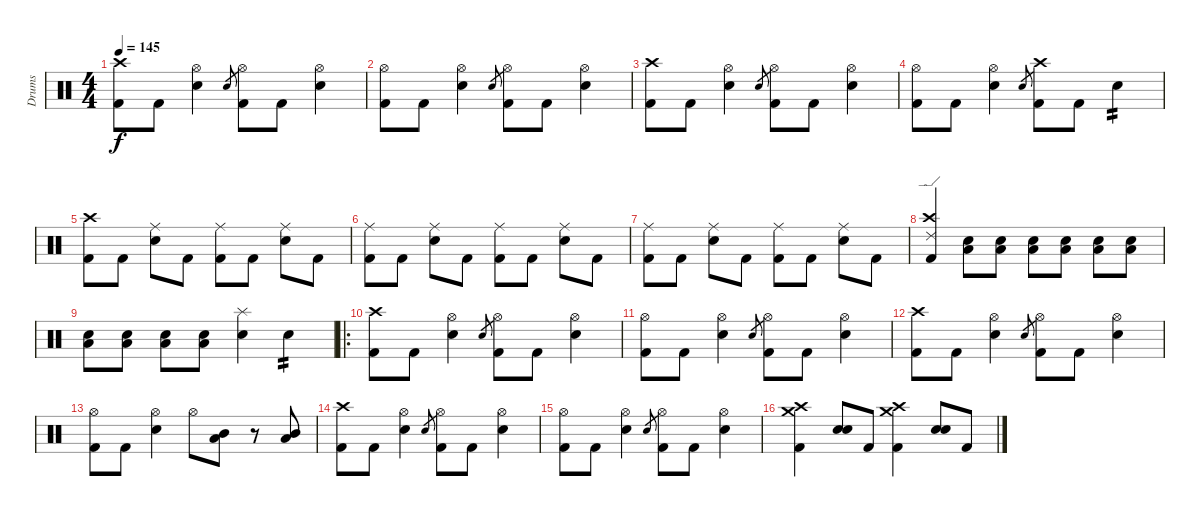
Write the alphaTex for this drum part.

\track ("Drums" "Drums") {instrument percussion}
\staff {score}
\articulation defaults
\ts (4 4)
\tempo 145
\clef neutral
\ks c
("Kick (hit) 2" "Crash high (hit)").8{dy f} "Kick (hit) 2".8 ("Electric Snare (hit)" "Hi-Hat (open)").4 "Electric Snare (hit)".8{gr} ("Kick (hit) 2" "Hi-Hat (open)").8 "Kick (hit) 2".8 ("Electric Snare (hit)" "Hi-Hat (open)").4 |
("Kick (hit) 2" "Hi-Hat (open)").8 "Kick (hit) 2".8 ("Electric Snare (hit)" "Hi-Hat (open)").4 "Electric Snare (hit)".8{gr} ("Kick (hit) 2" "Hi-Hat (open)").8 "Kick (hit) 2".8 ("Electric Snare (hit)" "Hi-Hat (open)").4 |
("Kick (hit) 2" "Crash high (hit)").8 "Kick (hit) 2".8 ("Electric Snare (hit)" "Hi-Hat (open)").4 "Electric Snare (hit)".8{gr} ("Kick (hit) 2" "Hi-Hat (open)").8 "Kick (hit) 2".8 ("Electric Snare (hit)" "Hi-Hat (open)").4 |
("Kick (hit) 2" "Hi-Hat (open)").8 "Kick (hit) 2".8 ("Electric Snare (hit)" "Hi-Hat (open)").4 "Electric Snare (hit)".8{gr} ("Kick (hit) 2" "Crash high (hit)").8 "Kick (hit) 2".8 "Electric Snare (hit)".4{tp 2} |
("Kick (hit) 2" "Crash high (hit)").8 "Kick (hit) 2".8 ("Electric Snare (hit)" "Ride (middle)").8 "Kick (hit) 2".8 ("Kick (hit) 2" "Ride (middle)").8 "Kick (hit) 2".8 ("Electric Snare (hit)" "Ride (middle)").8 "Kick (hit) 2".8 |
("Kick (hit) 2" "Ride (middle)").8 "Kick (hit) 2".8 ("Electric Snare (hit)" "Ride (middle)").8 "Kick (hit) 2".8 ("Kick (hit) 2" "Ride (middle)").8 "Kick (hit) 2".8 ("Electric Snare (hit)" "Ride (middle)").8 "Kick (hit) 2".8 |
("Kick (hit) 2" "Ride (middle)").8 "Kick (hit) 2".8 ("Electric Snare (hit)" "Ride (middle)").8 "Kick (hit) 2".8 ("Kick (hit) 2" "Ride (middle)").8 "Kick (hit) 2".8 ("Electric Snare (hit)" "Ride (middle)").8 "Kick (hit) 2".8 |
("Kick (hit) 2" "Ride (edge) 2" "Crash high (hit)").4 ("Electric Snare (hit)" "Low Tom (hit)").8 ("Electric Snare (hit)" "Low Tom (hit)").8 ("Electric Snare (hit)" "Low Tom (hit)").8 ("Electric Snare (hit)" "Low Tom (hit)").8 ("Electric Snare (hit)" "Low Tom (hit)").8 ("Electric Snare (hit)" "Low Tom (hit)").8 |
("Electric Snare (hit)" "Low Tom (hit)").8 ("Electric Snare (hit)" "Low Tom (hit)").8 ("Electric Snare (hit)" "Low Tom (hit)").8 ("Electric Snare (hit)" "Low Tom (hit)").8 ("Electric Snare (hit)" "Splash (hit)").4 "Electric Snare (hit)".4{tp 2} |
\ro
("Kick (hit) 2" "Crash high (hit)").8 "Kick (hit) 2".8 ("Electric Snare (hit)" "Hi-Hat (open)").4 "Electric Snare (hit)".8{gr} ("Kick (hit) 2" "Hi-Hat (open)").8 "Kick (hit) 2".8 ("Electric Snare (hit)" "Hi-Hat (open)").4 |
("Kick (hit) 2" "Hi-Hat (open)").8 "Kick (hit) 2".8 ("Electric Snare (hit)" "Hi-Hat (open)").4 "Electric Snare (hit)".8{gr} ("Kick (hit) 2" "Hi-Hat (open)").8 "Kick (hit) 2".8 ("Electric Snare (hit)" "Hi-Hat (open)").4 |
("Kick (hit) 2" "Crash high (hit)").8 "Kick (hit) 2".8 ("Electric Snare (hit)" "Hi-Hat (open)").4 "Electric Snare (hit)".8{gr} ("Kick (hit) 2" "Hi-Hat (open)").8 "Kick (hit) 2".8 ("Electric Snare (hit)" "Hi-Hat (open)").4 |
("Kick (hit) 2" "Hi-Hat (open)").8 "Kick (hit) 2".8 ("Electric Snare (hit)" "Hi-Hat (open)").4 "Hi-Hat (open)".8 ("Low Tom (hit)" "Mid Tom (hit)").8 r.8 ("Low Tom (hit)" "Mid Tom (hit)").8 |
("Kick (hit) 2" "Crash high (hit)").8 "Kick (hit) 2".8 ("Electric Snare (hit)" "Hi-Hat (open)").4 "Electric Snare (hit)".8{gr} ("Kick (hit) 2" "Hi-Hat (open)").8 "Kick (hit) 2".8 ("Electric Snare (hit)" "Hi-Hat (open)").4 |
("Kick (hit) 2" "Hi-Hat (open)").8 "Kick (hit) 2".8 ("Electric Snare (hit)" "Hi-Hat (open)").4 "Electric Snare (hit)".8{gr} ("Kick (hit) 2" "Hi-Hat (open)").8 "Kick (hit) 2".8 ("Electric Snare (hit)" "Hi-Hat (open)").4 |
("Kick (hit) 2" "Crash high (hit)" "Crash medium (hit)").4 ("Electric Snare (hit)" "Electric Snare (hit)").8 "Kick (hit) 2".8 ("Kick (hit) 2" "Crash high (hit)" "Crash medium (hit)").4 ("Electric Snare (hit)" "Electric Snare (hit)").8 "Kick (hit) 2".8
